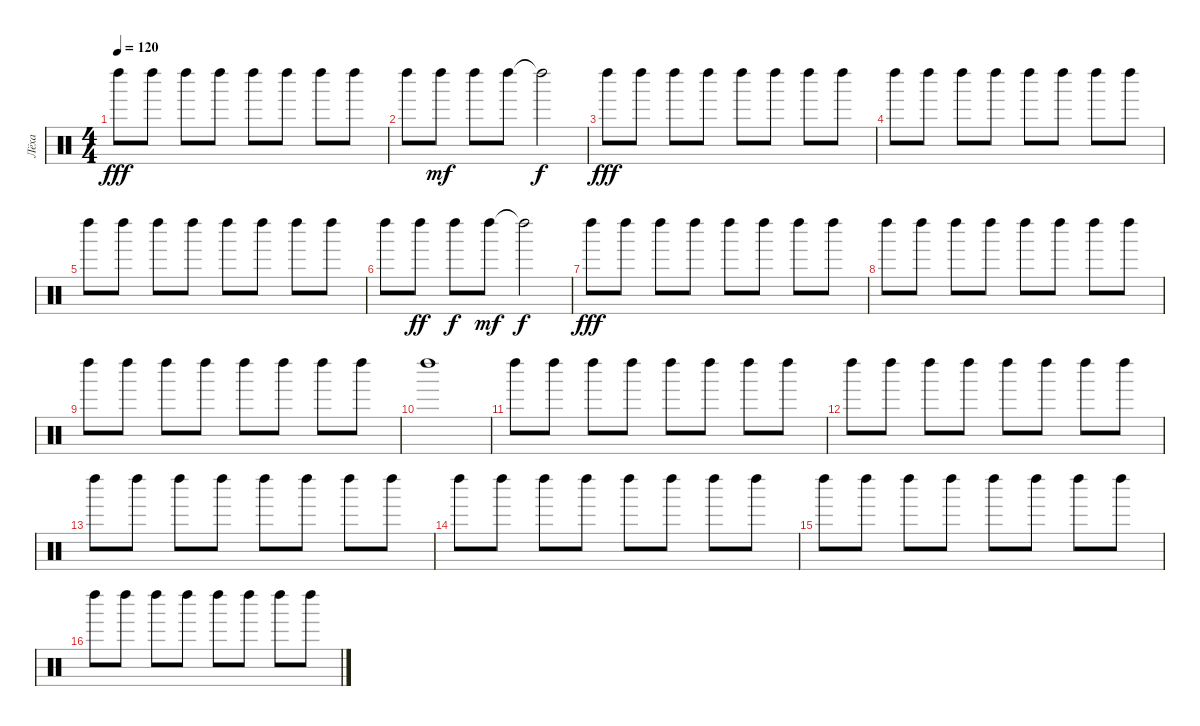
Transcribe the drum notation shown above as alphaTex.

\track ("Лёха" "Лёха") {instrument percussion}
\staff {score}
\articulation defaults
\ts (4 4)
\tempo 120
\clef neutral
\ks c "Left Maraca (hit)".8{dy fff} "Left Maraca (hit)".8 "Left Maraca (hit)".8 "Left Maraca (hit)".8 "Left Maraca (hit)".8 "Left Maraca (hit)".8 "Left Maraca (hit)".8 "Left Maraca (hit)".8
|
"Left Maraca (hit)".8 "Left Maraca (hit)".8{dy mf} "Left Maraca (hit)".8 "Left Maraca (hit)".8 "Left Maraca (hit)"{t}.2{dy f} |
"Left Maraca (hit)".8{dy fff} "Left Maraca (hit)".8 "Left Maraca (hit)".8 "Left Maraca (hit)".8 "Left Maraca (hit)".8 "Left Maraca (hit)".8 "Left Maraca (hit)".8 "Left Maraca (hit)".8 |
"Left Maraca (hit)".8 "Left Maraca (hit)".8 "Left Maraca (hit)".8 "Left Maraca (hit)".8 "Left Maraca (hit)".8 "Left Maraca (hit)".8 "Left Maraca (hit)".8 "Left Maraca (hit)".8 |
"Left Maraca (hit)".8 "Left Maraca (hit)".8 "Left Maraca (hit)".8 "Left Maraca (hit)".8 "Left Maraca (hit)".8 "Left Maraca (hit)".8 "Left Maraca (hit)".8 "Left Maraca (hit)".8 |
"Left Maraca (hit)".8 "Left Maraca (hit)".8{dy ff} "Left Maraca (hit)".8{dy f} "Left Maraca (hit)".8{dy mf} "Left Maraca (hit)"{t}.2{dy f} |
"Left Maraca (hit)".8{dy fff} "Left Maraca (hit)".8 "Left Maraca (hit)".8 "Left Maraca (hit)".8 "Left Maraca (hit)".8 "Left Maraca (hit)".8 "Left Maraca (hit)".8 "Left Maraca (hit)".8 |
"Left Maraca (hit)".8 "Left Maraca (hit)".8 "Left Maraca (hit)".8 "Left Maraca (hit)".8 "Left Maraca (hit)".8 "Left Maraca (hit)".8 "Left Maraca (hit)".8 "Left Maraca (hit)".8 |
"Left Maraca (hit)".8 "Left Maraca (hit)".8 "Left Maraca (hit)".8 "Left Maraca (hit)".8 "Left Maraca (hit)".8 "Left Maraca (hit)".8 "Left Maraca (hit)".8 "Left Maraca (hit)".8 |
"Left Maraca (hit)".1 |
"Left Maraca (hit)".8 "Left Maraca (hit)".8 "Left Maraca (hit)".8 "Left Maraca (hit)".8 "Left Maraca (hit)".8 "Left Maraca (hit)".8 "Left Maraca (hit)".8 "Left Maraca (hit)".8 |
"Left Maraca (hit)".8 "Left Maraca (hit)".8 "Left Maraca (hit)".8 "Left Maraca (hit)".8 "Left Maraca (hit)".8 "Left Maraca (hit)".8 "Left Maraca (hit)".8 "Left Maraca (hit)".8 |
"Left Maraca (hit)".8 "Left Maraca (hit)".8 "Left Maraca (hit)".8 "Left Maraca (hit)".8 "Left Maraca (hit)".8 "Left Maraca (hit)".8 "Left Maraca (hit)".8 "Left Maraca (hit)".8 |
"Left Maraca (hit)".8 "Left Maraca (hit)".8 "Left Maraca (hit)".8 "Left Maraca (hit)".8 "Left Maraca (hit)".8 "Left Maraca (hit)".8 "Left Maraca (hit)".8 "Left Maraca (hit)".8 |
"Left Maraca (hit)".8 "Left Maraca (hit)".8 "Left Maraca (hit)".8 "Left Maraca (hit)".8 "Left Maraca (hit)".8 "Left Maraca (hit)".8 "Left Maraca (hit)".8 "Left Maraca (hit)".8 |
"Left Maraca (hit)".8 "Left Maraca (hit)".8 "Left Maraca (hit)".8 "Left Maraca (hit)".8 "Left Maraca (hit)".8 "Left Maraca (hit)".8 "Left Maraca (hit)".8 "Left Maraca (hit)".8
